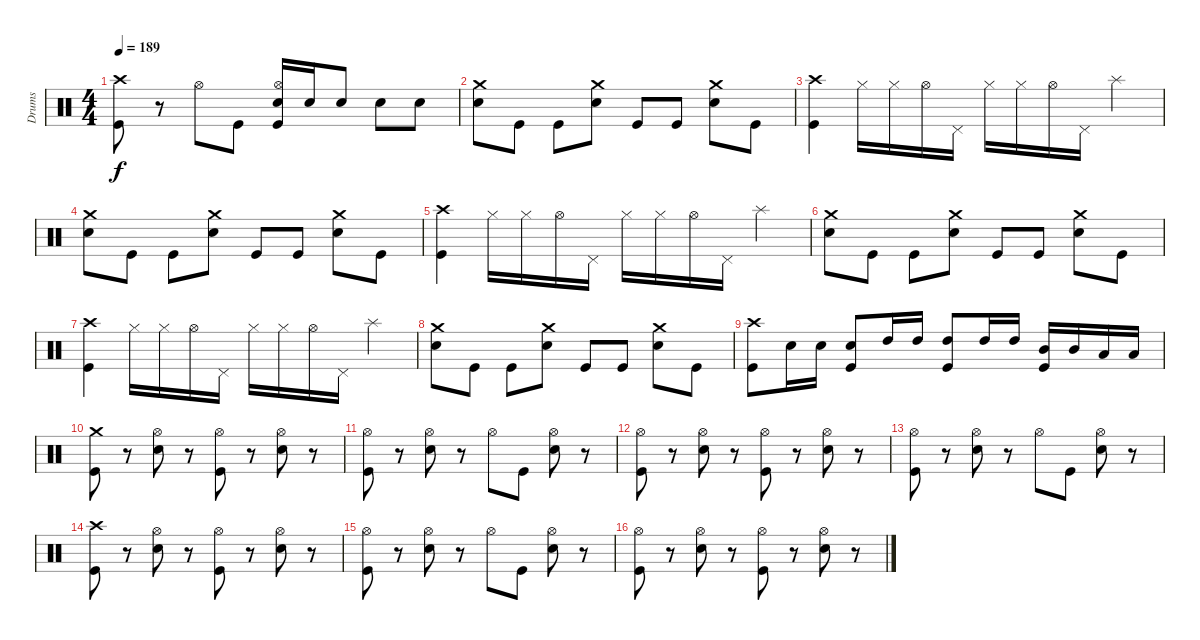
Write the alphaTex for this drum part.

\track ("Drums" "Drums") {instrument percussion}
\staff {score}
\articulation defaults
\ts (4 4)
\tempo 189
\clef neutral
\ks c
("Crash high (hit)" "Kick (hit)").8{dy f} r.8 "Hi-Hat (open)".8 "Kick (hit)".8 ("Hi-Hat (open)" "Electric Snare (hit)" "Kick (hit)").16 "Electric Snare (hit)".16 "Electric Snare (hit)".8 "Electric Snare (hit)".8 "Electric Snare (hit)".8 |
("Crash medium (hit)" "Electric Snare (hit)").8 "Kick (hit)".8 "Kick (hit)".8 ("Crash medium (hit)" "Electric Snare (hit)").8 "Kick (hit)".8 "Kick (hit)".8 ("Crash medium (hit)" "Electric Snare (hit)").8 "Kick (hit)".8 |
("Crash high (hit)" "Kick (hit)").4 "Hi-Hat (closed)".16 "Hi-Hat (closed)".16 "Hi-Hat (open)".16 "Pedal Hi-Hat (hit)".16 "Hi-Hat (closed)".16 "Hi-Hat (closed)".16 "Hi-Hat (open)".16 "Pedal Hi-Hat (hit)".16 "Splash (hit)".4 |
("Crash medium (hit)" "Electric Snare (hit)").8 "Kick (hit)".8 "Kick (hit)".8 ("Crash medium (hit)" "Electric Snare (hit)").8 "Kick (hit)".8 "Kick (hit)".8 ("Crash medium (hit)" "Electric Snare (hit)").8 "Kick (hit)".8 |
("Crash high (hit)" "Kick (hit)").4 "Hi-Hat (closed)".16 "Hi-Hat (closed)".16 "Hi-Hat (open)".16 "Pedal Hi-Hat (hit)".16 "Hi-Hat (closed)".16 "Hi-Hat (closed)".16 "Hi-Hat (open)".16 "Pedal Hi-Hat (hit)".16 "Splash (hit)".4 |
("Crash medium (hit)" "Electric Snare (hit)").8 "Kick (hit)".8 "Kick (hit)".8 ("Crash medium (hit)" "Electric Snare (hit)").8 "Kick (hit)".8 "Kick (hit)".8 ("Crash medium (hit)" "Electric Snare (hit)").8 "Kick (hit)".8 |
("Crash high (hit)" "Kick (hit)").4 "Hi-Hat (closed)".16 "Hi-Hat (closed)".16 "Hi-Hat (open)".16 "Pedal Hi-Hat (hit)".16 "Hi-Hat (closed)".16 "Hi-Hat (closed)".16 "Hi-Hat (open)".16 "Pedal Hi-Hat (hit)".16 "Splash (hit)".4 |
("Crash medium (hit)" "Electric Snare (hit)").8 "Kick (hit)".8 "Kick (hit)".8 ("Crash medium (hit)" "Electric Snare (hit)").8 "Kick (hit)".8 "Kick (hit)".8 ("Crash medium (hit)" "Electric Snare (hit)").8 "Kick (hit)".8 |
("Crash high (hit)" "Kick (hit)").8 "Electric Snare (hit)".16 "Electric Snare (hit)".16 ("Electric Snare (hit)" "Kick (hit)").8 "High Tom (hit)".16 "High Tom (hit)".16 ("High Tom (hit)" "Kick (hit)").8 "High Tom (hit)".16 "High Tom (hit)".16 ("Mid Tom (hit)" "Kick (hit)").16 "Mid Tom (hit)".16 "Low Tom (hit)".16 "Low Tom (hit)".16 |
("Crash medium (hit)" "Kick (hit)").8 r.8 ("Hi-Hat (open)" "Electric Snare (hit)").8 r.8 ("Hi-Hat (open)" "Kick (hit)").8 r.8 ("Hi-Hat (open)" "Electric Snare (hit)").8 r.8 |
("Hi-Hat (open)" "Kick (hit)").8 r.8 ("Hi-Hat (open)" "Electric Snare (hit)").8 r.8 "Hi-Hat (open)".8 "Kick (hit)".8 ("Hi-Hat (open)" "Electric Snare (hit)").8 r.8 |
("Hi-Hat (open)" "Kick (hit)").8 r.8 ("Hi-Hat (open)" "Electric Snare (hit)").8 r.8 ("Hi-Hat (open)" "Kick (hit)").8 r.8 ("Hi-Hat (open)" "Electric Snare (hit)").8 r.8 |
("Hi-Hat (open)" "Kick (hit)").8 r.8 ("Hi-Hat (open)" "Electric Snare (hit)").8 r.8 "Hi-Hat (open)".8 "Kick (hit)".8 ("Hi-Hat (open)" "Electric Snare (hit)").8 r.8 |
("Crash high (hit)" "Kick (hit)").8 r.8 ("Hi-Hat (open)" "Electric Snare (hit)").8 r.8 ("Hi-Hat (open)" "Kick (hit)").8 r.8 ("Hi-Hat (open)" "Electric Snare (hit)").8 r.8 |
("Hi-Hat (open)" "Kick (hit)").8 r.8 ("Hi-Hat (open)" "Electric Snare (hit)").8 r.8 "Hi-Hat (open)".8 "Kick (hit)".8 ("Hi-Hat (open)" "Electric Snare (hit)").8 r.8 |
("Hi-Hat (open)" "Kick (hit)").8 r.8 ("Hi-Hat (open)" "Electric Snare (hit)").8 r.8 ("Hi-Hat (open)" "Kick (hit)").8 r.8 ("Hi-Hat (open)" "Electric Snare (hit)").8 r.8
